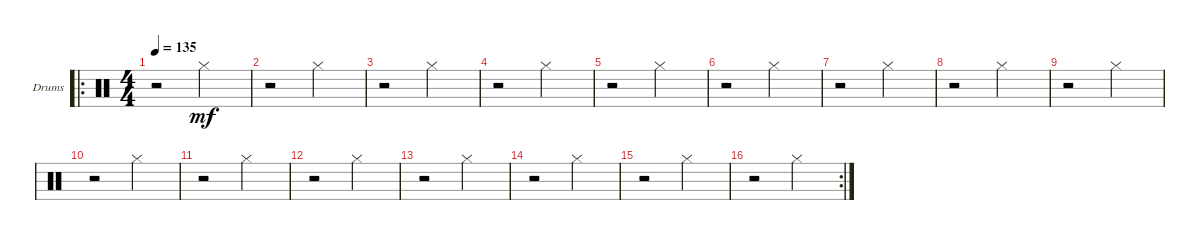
\defaultSystemsLayout 4
\bracketExtendMode groupsimilarinstruments
\firstSystemTrackNameOrientation horizontal
\otherSystemsTrackNameOrientation horizontal
\track ("Drumkit" "Drums") {instrument percussion}
\staff {score}
\articulation defaults
\ro
\ts (4 4)
\tempo 135
\clef neutral
\ks c
r.2{dy mf} "Hi-Hat (closed)".2 |
r.2 "Hi-Hat (closed)".2 |
r.2 "Hi-Hat (closed)".2 |
r.2 "Hi-Hat (closed)".2 |
r.2 "Hi-Hat (closed)".2 |
r.2 "Hi-Hat (closed)".2 |
r.2 "Hi-Hat (closed)".2 |
r.2 "Hi-Hat (closed)".2 |
r.2 "Hi-Hat (closed)".2 |
r.2 "Hi-Hat (closed)".2 |
r.2 "Hi-Hat (closed)".2 |
r.2 "Hi-Hat (closed)".2 |
r.2 "Hi-Hat (closed)".2 |
r.2 "Hi-Hat (closed)".2 |
r.2 "Hi-Hat (closed)".2 |
\rc 2
r.2 "Hi-Hat (closed)".2
